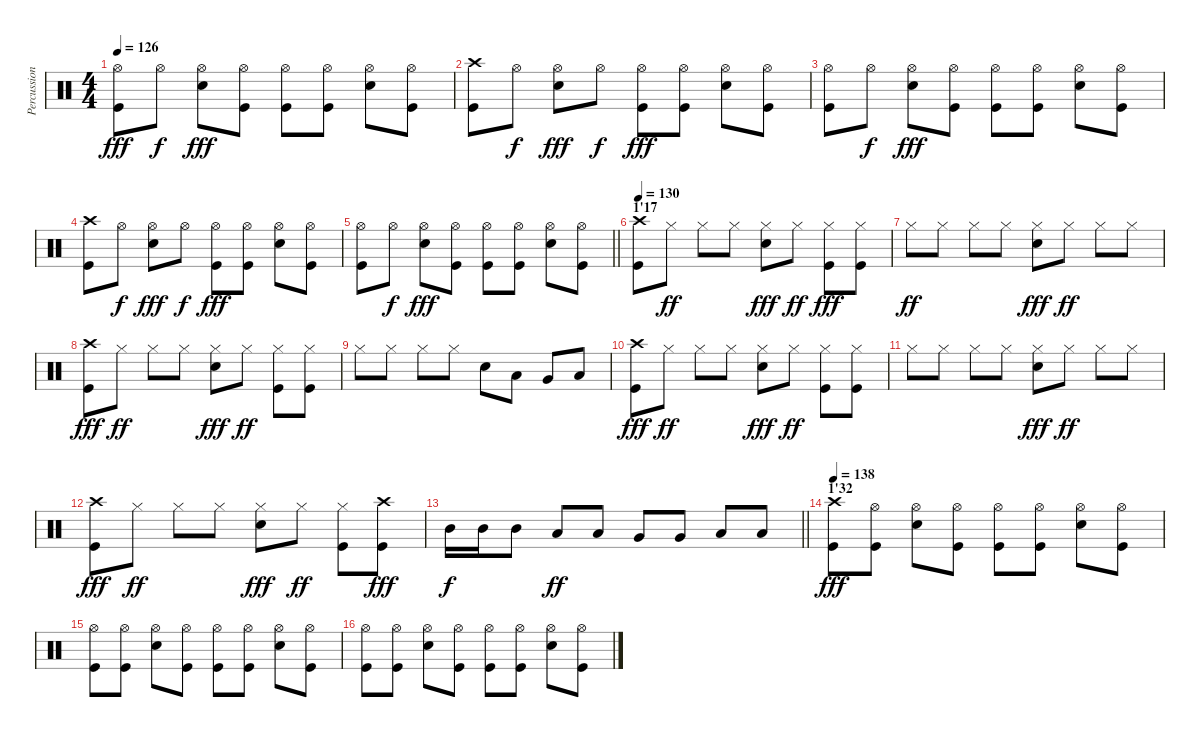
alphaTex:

\track ("Percussions" "Percussion") {instrument percussion}
\staff {score}
\articulation defaults
\ts (4 4)
\tempo 126
\clef neutral
\ks c
("Hi-Hat (open)" "Kick (hit)").8{dy fff} "Hi-Hat (open)".8{dy f} ("Hi-Hat (open)" "Electric Snare (hit)").8{dy fff} ("Hi-Hat (open)" "Kick (hit)").8 ("Hi-Hat (open)" "Kick (hit)").8 ("Hi-Hat (open)" "Kick (hit)").8 ("Hi-Hat (open)" "Electric Snare (hit)").8 ("Hi-Hat (open)" "Kick (hit)").8 |
("Crash high (hit)" "Kick (hit)").8 "Hi-Hat (open)".8{dy f} ("Hi-Hat (open)" "Electric Snare (hit)").8{dy fff} "Hi-Hat (open)".8{dy f} ("Hi-Hat (open)" "Kick (hit)").8{dy fff} ("Hi-Hat (open)" "Kick (hit)").8 ("Hi-Hat (open)" "Electric Snare (hit)").8 ("Hi-Hat (open)" "Kick (hit)").8 |
("Hi-Hat (open)" "Kick (hit)").8 "Hi-Hat (open)".8{dy f} ("Hi-Hat (open)" "Electric Snare (hit)").8{dy fff} ("Hi-Hat (open)" "Kick (hit)").8 ("Hi-Hat (open)" "Kick (hit)").8 ("Hi-Hat (open)" "Kick (hit)").8 ("Hi-Hat (open)" "Electric Snare (hit)").8 ("Hi-Hat (open)" "Kick (hit)").8 |
("Crash high (hit)" "Kick (hit)").8 "Hi-Hat (open)".8{dy f} ("Hi-Hat (open)" "Electric Snare (hit)").8{dy fff} "Hi-Hat (open)".8{dy f} ("Hi-Hat (open)" "Kick (hit)").8{dy fff} ("Hi-Hat (open)" "Kick (hit)").8 ("Hi-Hat (open)" "Electric Snare (hit)").8 ("Hi-Hat (open)" "Kick (hit)").8 |
\barLineRight lightlight
("Hi-Hat (open)" "Kick (hit)").8 "Hi-Hat (open)".8{dy f} ("Hi-Hat (open)" "Electric Snare (hit)").8{dy fff} ("Hi-Hat (open)" "Kick (hit)").8 ("Hi-Hat (open)" "Kick (hit)").8 ("Hi-Hat (open)" "Kick (hit)").8 ("Hi-Hat (open)" "Electric Snare (hit)").8 ("Hi-Hat (open)" "Kick (hit)").8 |
\section ("" "1'17")
\tempo 130
("Crash high (hit)" "Kick (hit)").8 "Hi-Hat (closed)".8{dy ff} "Hi-Hat (closed)".8 "Hi-Hat (closed)".8 ("Hi-Hat (closed)" "Electric Snare (hit)").8{dy fff} "Hi-Hat (closed)".8{dy ff} ("Hi-Hat (closed)" "Kick (hit)").8{dy fff} ("Hi-Hat (closed)" "Kick (hit)").8 |
"Hi-Hat (closed)".8{dy ff} "Hi-Hat (closed)".8 "Hi-Hat (closed)".8 "Hi-Hat (closed)".8 ("Hi-Hat (closed)" "Electric Snare (hit)").8{dy fff} "Hi-Hat (closed)".8{dy ff} "Hi-Hat (closed)".8 "Hi-Hat (closed)".8 |
("Crash high (hit)" "Kick (hit)").8{dy fff} "Hi-Hat (closed)".8{dy ff} "Hi-Hat (closed)".8 "Hi-Hat (closed)".8 ("Hi-Hat (closed)" "Electric Snare (hit)").8{dy fff} "Hi-Hat (closed)".8{dy ff} ("Hi-Hat (closed)" "Kick (hit)").8 ("Hi-Hat (closed)" "Kick (hit)").8 |
"Hi-Hat (closed)".8 "Hi-Hat (closed)".8 "Hi-Hat (closed)".8 "Hi-Hat (closed)".8 "Electric Snare (hit)".8 "Low Tom (hit)".8 "Very Low Tom (hit)".8 "Low Floor Tom (hit)".8 |
("Crash high (hit)" "Kick (hit)").8{dy fff} "Hi-Hat (closed)".8{dy ff} "Hi-Hat (closed)".8 "Hi-Hat (closed)".8 ("Hi-Hat (closed)" "Electric Snare (hit)").8{dy fff} "Hi-Hat (closed)".8{dy ff} ("Hi-Hat (closed)" "Kick (hit)").8 ("Hi-Hat (closed)" "Kick (hit)").8 |
"Hi-Hat (closed)".8 "Hi-Hat (closed)".8 "Hi-Hat (closed)".8 "Hi-Hat (closed)".8 ("Hi-Hat (closed)" "Electric Snare (hit)").8{dy fff} "Hi-Hat (closed)".8{dy ff} "Hi-Hat (closed)".8 "Hi-Hat (closed)".8 |
("Crash high (hit)" "Kick (hit)").8{dy fff} "Hi-Hat (closed)".8{dy ff} "Hi-Hat (closed)".8 "Hi-Hat (closed)".8 ("Hi-Hat (closed)" "Electric Snare (hit)").8{dy fff} "Hi-Hat (closed)".8{dy ff} ("Hi-Hat (closed)" "Kick (hit)").8 ("Crash high (hit)" "Kick (hit)").8{dy fff} |
\barLineRight lightlight "Mid Tom (hit)".16{dy f} "Mid Tom (hit)".16 "Mid Tom (hit)".8 "Low Tom (hit)".8{dy ff} "Low Tom (hit)".8 "Very Low Tom (hit)".8 "Very Low Tom (hit)".8 "Low Floor Tom (hit)".8 "Low Floor Tom (hit)".8
|
\section ("" "1'32")
\tempo 138
("Crash high (hit)" "Kick (hit)").8{dy fff} ("Hi-Hat (open)" "Kick (hit)").8 ("Hi-Hat (open)" "Electric Snare (hit)").8 ("Hi-Hat (open)" "Kick (hit)").8 ("Hi-Hat (open)" "Kick (hit)").8 ("Hi-Hat (open)" "Kick (hit)").8 ("Hi-Hat (open)" "Electric Snare (hit)").8 ("Hi-Hat (open)" "Kick (hit)").8 |
("Hi-Hat (open)" "Kick (hit)").8 ("Hi-Hat (open)" "Kick (hit)").8 ("Hi-Hat (open)" "Electric Snare (hit)").8 ("Hi-Hat (open)" "Kick (hit)").8 ("Hi-Hat (open)" "Kick (hit)").8 ("Hi-Hat (open)" "Kick (hit)").8 ("Hi-Hat (open)" "Electric Snare (hit)").8 ("Hi-Hat (open)" "Kick (hit)").8 |
("Hi-Hat (open)" "Kick (hit)").8 ("Hi-Hat (open)" "Kick (hit)").8 ("Hi-Hat (open)" "Electric Snare (hit)").8 ("Hi-Hat (open)" "Kick (hit)").8 ("Hi-Hat (open)" "Kick (hit)").8 ("Hi-Hat (open)" "Kick (hit)").8 ("Hi-Hat (open)" "Electric Snare (hit)").8 ("Hi-Hat (open)" "Kick (hit)").8
